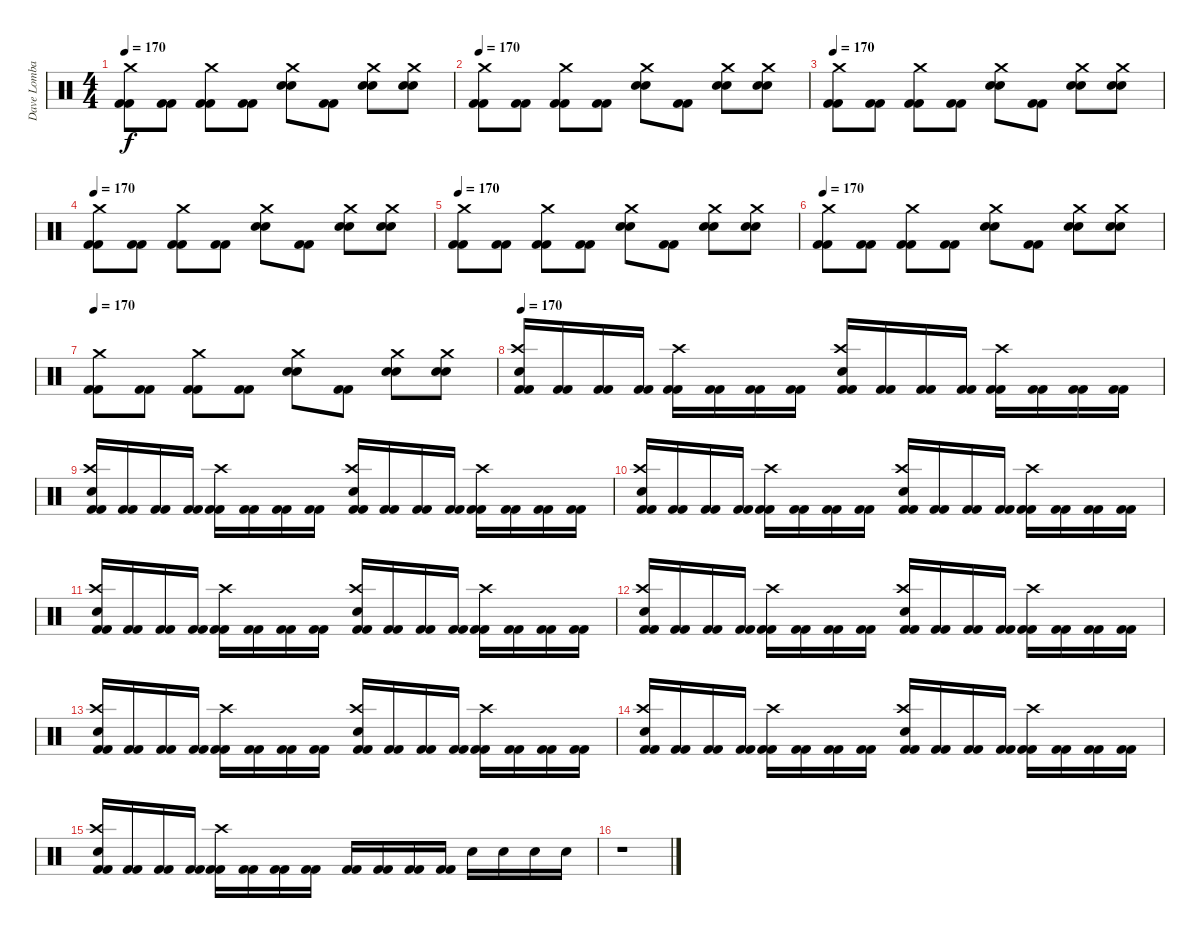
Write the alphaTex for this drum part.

\track ("Dave Lombardo" "Dave Lomba") {instrument percussion}
\staff {score}
\articulation defaults
\ts (4 4)
\tempo 170
\clef neutral
\ks c
("Crash medium (hit)" "Kick (hit) 2" "Kick (hit) 2").8{dy f} ("Kick (hit) 2" "Kick (hit) 2").8{txt " "} ("Crash medium (hit)" "Kick (hit) 2" "Kick (hit) 2").8 ("Kick (hit) 2" "Kick (hit) 2").8 ("Crash medium (hit)" "Snare (hit) 2" "Snare (hit) 2").8 ("Kick (hit) 2" "Kick (hit) 2").8 ("Crash medium (hit)" "Snare (hit) 2" "Snare (hit) 2").8 ("Crash medium (hit)" "Snare (hit) 2" "Snare (hit) 2").8 |
\tempo 170
("Crash medium (hit)" "Kick (hit) 2" "Kick (hit) 2").8 ("Kick (hit) 2" "Kick (hit) 2").8{txt " "} ("Crash medium (hit)" "Kick (hit) 2" "Kick (hit) 2").8 ("Kick (hit) 2" "Kick (hit) 2").8 ("Crash medium (hit)" "Snare (hit) 2" "Snare (hit) 2").8 ("Kick (hit) 2" "Kick (hit) 2").8 ("Crash medium (hit)" "Snare (hit) 2" "Snare (hit) 2").8 ("Crash medium (hit)" "Snare (hit) 2" "Snare (hit) 2").8 |
\tempo 170
("Crash medium (hit)" "Kick (hit) 2" "Kick (hit) 2").8 ("Kick (hit) 2" "Kick (hit) 2").8{txt " "} ("Crash medium (hit)" "Kick (hit) 2" "Kick (hit) 2").8 ("Kick (hit) 2" "Kick (hit) 2").8 ("Crash medium (hit)" "Snare (hit) 2" "Snare (hit) 2").8 ("Kick (hit) 2" "Kick (hit) 2").8 ("Crash medium (hit)" "Snare (hit) 2" "Snare (hit) 2").8 ("Crash medium (hit)" "Snare (hit) 2" "Snare (hit) 2").8 |
\tempo 170
("Crash medium (hit)" "Kick (hit) 2" "Kick (hit) 2").8 ("Kick (hit) 2" "Kick (hit) 2").8{txt " "} ("Crash medium (hit)" "Kick (hit) 2" "Kick (hit) 2").8 ("Kick (hit) 2" "Kick (hit) 2").8 ("Crash medium (hit)" "Snare (hit) 2" "Snare (hit) 2").8 ("Kick (hit) 2" "Kick (hit) 2").8 ("Crash medium (hit)" "Snare (hit) 2" "Snare (hit) 2").8 ("Crash medium (hit)" "Snare (hit) 2" "Snare (hit) 2").8 |
\tempo 170
("Crash medium (hit)" "Kick (hit) 2" "Kick (hit) 2").8 ("Kick (hit) 2" "Kick (hit) 2").8{txt " "} ("Crash medium (hit)" "Kick (hit) 2" "Kick (hit) 2").8 ("Kick (hit) 2" "Kick (hit) 2").8 ("Crash medium (hit)" "Snare (hit) 2" "Snare (hit) 2").8 ("Kick (hit) 2" "Kick (hit) 2").8 ("Crash medium (hit)" "Snare (hit) 2" "Snare (hit) 2").8 ("Crash medium (hit)" "Snare (hit) 2" "Snare (hit) 2").8 |
\tempo 170
("Crash medium (hit)" "Kick (hit) 2" "Kick (hit) 2").8 ("Kick (hit) 2" "Kick (hit) 2").8{txt " "} ("Crash medium (hit)" "Kick (hit) 2" "Kick (hit) 2").8 ("Kick (hit) 2" "Kick (hit) 2").8 ("Crash medium (hit)" "Snare (hit) 2" "Snare (hit) 2").8 ("Kick (hit) 2" "Kick (hit) 2").8 ("Crash medium (hit)" "Snare (hit) 2" "Snare (hit) 2").8 ("Crash medium (hit)" "Snare (hit) 2" "Snare (hit) 2").8 |
\tempo 170
("Crash medium (hit)" "Kick (hit) 2" "Kick (hit) 2").8 ("Kick (hit) 2" "Kick (hit) 2").8{txt " "} ("Crash medium (hit)" "Kick (hit) 2" "Kick (hit) 2").8 ("Kick (hit) 2" "Kick (hit) 2").8 ("Crash medium (hit)" "Snare (hit) 2" "Snare (hit) 2").8 ("Kick (hit) 2" "Kick (hit) 2").8 ("Crash medium (hit)" "Snare (hit) 2" "Snare (hit) 2").8 ("Crash medium (hit)" "Snare (hit) 2" "Snare (hit) 2").8 |
\tempo 170
("Crash high (hit)" "Electric Snare (hit)" "Kick (hit) 2" "Kick (hit) 2").16 ("Kick (hit) 2" "Kick (hit) 2").16 ("Kick (hit) 2" "Kick (hit) 2").16 ("Kick (hit) 2" "Kick (hit) 2").16 ("Crash high (hit)" "Kick (hit) 2" "Kick (hit) 2").16 ("Kick (hit) 2" "Kick (hit) 2").16 ("Kick (hit) 2" "Kick (hit) 2").16 ("Kick (hit) 2" "Kick (hit) 2").16 ("Crash high (hit)" "Electric Snare (hit)" "Kick (hit) 2" "Kick (hit) 2").16 ("Kick (hit) 2" "Kick (hit) 2").16 ("Kick (hit) 2" "Kick (hit) 2").16 ("Kick (hit) 2" "Kick (hit) 2").16 ("Crash high (hit)" "Kick (hit) 2" "Kick (hit) 2").16 ("Kick (hit) 2" "Kick (hit) 2").16 ("Kick (hit) 2" "Kick (hit) 2").16 ("Kick (hit) 2" "Kick (hit) 2").16 |
("Crash high (hit)" "Electric Snare (hit)" "Kick (hit) 2" "Kick (hit) 2").16 ("Kick (hit) 2" "Kick (hit) 2").16 ("Kick (hit) 2" "Kick (hit) 2").16 ("Kick (hit) 2" "Kick (hit) 2").16 ("Crash high (hit)" "Kick (hit) 2" "Kick (hit) 2").16 ("Kick (hit) 2" "Kick (hit) 2").16 ("Kick (hit) 2" "Kick (hit) 2").16 ("Kick (hit) 2" "Kick (hit) 2").16 ("Crash high (hit)" "Electric Snare (hit)" "Kick (hit) 2" "Kick (hit) 2").16 ("Kick (hit) 2" "Kick (hit) 2").16 ("Kick (hit) 2" "Kick (hit) 2").16 ("Kick (hit) 2" "Kick (hit) 2").16 ("Crash high (hit)" "Kick (hit) 2" "Kick (hit) 2").16 ("Kick (hit) 2" "Kick (hit) 2").16 ("Kick (hit) 2" "Kick (hit) 2").16 ("Kick (hit) 2" "Kick (hit) 2").16 |
("Crash high (hit)" "Electric Snare (hit)" "Kick (hit) 2" "Kick (hit) 2").16 ("Kick (hit) 2" "Kick (hit) 2").16 ("Kick (hit) 2" "Kick (hit) 2").16 ("Kick (hit) 2" "Kick (hit) 2").16 ("Crash high (hit)" "Kick (hit) 2" "Kick (hit) 2").16 ("Kick (hit) 2" "Kick (hit) 2").16 ("Kick (hit) 2" "Kick (hit) 2").16 ("Kick (hit) 2" "Kick (hit) 2").16 ("Crash high (hit)" "Electric Snare (hit)" "Kick (hit) 2" "Kick (hit) 2").16 ("Kick (hit) 2" "Kick (hit) 2").16 ("Kick (hit) 2" "Kick (hit) 2").16 ("Kick (hit) 2" "Kick (hit) 2").16 ("Crash high (hit)" "Kick (hit) 2" "Kick (hit) 2").16 ("Kick (hit) 2" "Kick (hit) 2").16 ("Kick (hit) 2" "Kick (hit) 2").16 ("Kick (hit) 2" "Kick (hit) 2").16 |
("Crash high (hit)" "Electric Snare (hit)" "Kick (hit) 2" "Kick (hit) 2").16 ("Kick (hit) 2" "Kick (hit) 2").16 ("Kick (hit) 2" "Kick (hit) 2").16 ("Kick (hit) 2" "Kick (hit) 2").16 ("Crash high (hit)" "Kick (hit) 2" "Kick (hit) 2").16 ("Kick (hit) 2" "Kick (hit) 2").16 ("Kick (hit) 2" "Kick (hit) 2").16 ("Kick (hit) 2" "Kick (hit) 2").16 ("Crash high (hit)" "Electric Snare (hit)" "Kick (hit) 2" "Kick (hit) 2").16 ("Kick (hit) 2" "Kick (hit) 2").16 ("Kick (hit) 2" "Kick (hit) 2").16 ("Kick (hit) 2" "Kick (hit) 2").16 ("Crash high (hit)" "Kick (hit) 2" "Kick (hit) 2").16 ("Kick (hit) 2" "Kick (hit) 2").16 ("Kick (hit) 2" "Kick (hit) 2").16 ("Kick (hit) 2" "Kick (hit) 2").16 |
("Crash high (hit)" "Electric Snare (hit)" "Kick (hit) 2" "Kick (hit) 2").16 ("Kick (hit) 2" "Kick (hit) 2").16 ("Kick (hit) 2" "Kick (hit) 2").16 ("Kick (hit) 2" "Kick (hit) 2").16 ("Crash high (hit)" "Kick (hit) 2" "Kick (hit) 2").16 ("Kick (hit) 2" "Kick (hit) 2").16 ("Kick (hit) 2" "Kick (hit) 2").16 ("Kick (hit) 2" "Kick (hit) 2").16 ("Crash high (hit)" "Electric Snare (hit)" "Kick (hit) 2" "Kick (hit) 2").16 ("Kick (hit) 2" "Kick (hit) 2").16 ("Kick (hit) 2" "Kick (hit) 2").16 ("Kick (hit) 2" "Kick (hit) 2").16 ("Crash high (hit)" "Kick (hit) 2" "Kick (hit) 2").16 ("Kick (hit) 2" "Kick (hit) 2").16 ("Kick (hit) 2" "Kick (hit) 2").16 ("Kick (hit) 2" "Kick (hit) 2").16 |
("Crash high (hit)" "Electric Snare (hit)" "Kick (hit) 2" "Kick (hit) 2").16 ("Kick (hit) 2" "Kick (hit) 2").16 ("Kick (hit) 2" "Kick (hit) 2").16 ("Kick (hit) 2" "Kick (hit) 2").16 ("Crash high (hit)" "Kick (hit) 2" "Kick (hit) 2").16 ("Kick (hit) 2" "Kick (hit) 2").16 ("Kick (hit) 2" "Kick (hit) 2").16 ("Kick (hit) 2" "Kick (hit) 2").16 ("Crash high (hit)" "Electric Snare (hit)" "Kick (hit) 2" "Kick (hit) 2").16 ("Kick (hit) 2" "Kick (hit) 2").16 ("Kick (hit) 2" "Kick (hit) 2").16 ("Kick (hit) 2" "Kick (hit) 2").16 ("Crash high (hit)" "Kick (hit) 2" "Kick (hit) 2").16 ("Kick (hit) 2" "Kick (hit) 2").16 ("Kick (hit) 2" "Kick (hit) 2").16 ("Kick (hit) 2" "Kick (hit) 2").16 |
("Crash high (hit)" "Electric Snare (hit)" "Kick (hit) 2" "Kick (hit) 2").16 ("Kick (hit) 2" "Kick (hit) 2").16 ("Kick (hit) 2" "Kick (hit) 2").16 ("Kick (hit) 2" "Kick (hit) 2").16 ("Crash high (hit)" "Kick (hit) 2" "Kick (hit) 2").16 ("Kick (hit) 2" "Kick (hit) 2").16 ("Kick (hit) 2" "Kick (hit) 2").16 ("Kick (hit) 2" "Kick (hit) 2").16 ("Crash high (hit)" "Electric Snare (hit)" "Kick (hit) 2" "Kick (hit) 2").16 ("Kick (hit) 2" "Kick (hit) 2").16 ("Kick (hit) 2" "Kick (hit) 2").16 ("Kick (hit) 2" "Kick (hit) 2").16 ("Crash high (hit)" "Kick (hit) 2" "Kick (hit) 2").16 ("Kick (hit) 2" "Kick (hit) 2").16 ("Kick (hit) 2" "Kick (hit) 2").16 ("Kick (hit) 2" "Kick (hit) 2").16 |
("Crash high (hit)" "Electric Snare (hit)" "Kick (hit) 2" "Kick (hit) 2").16 ("Kick (hit) 2" "Kick (hit) 2").16 ("Kick (hit) 2" "Kick (hit) 2").16 ("Kick (hit) 2" "Kick (hit) 2").16 ("Crash high (hit)" "Kick (hit) 2" "Kick (hit) 2").16 ("Kick (hit) 2" "Kick (hit) 2").16 ("Kick (hit) 2" "Kick (hit) 2").16 ("Kick (hit) 2" "Kick (hit) 2").16 ("Kick (hit) 2" "Kick (hit) 2").16 ("Kick (hit) 2" "Kick (hit) 2").16 ("Kick (hit) 2" "Kick (hit) 2").16 ("Kick (hit) 2" "Kick (hit) 2").16 "Electric Snare (hit)".16 "Electric Snare (hit)".16 "Electric Snare (hit)".16 "Electric Snare (hit)".16 |
r.1
